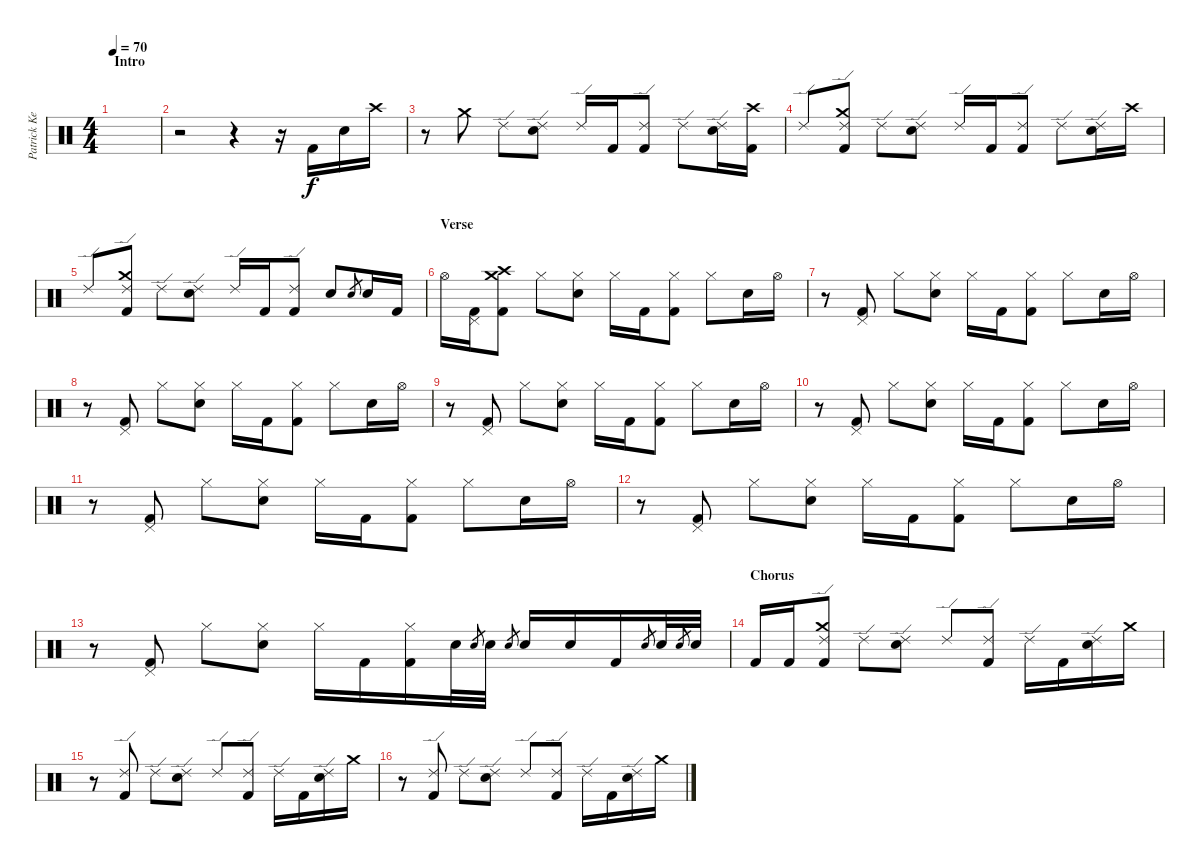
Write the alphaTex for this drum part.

\track ("Patrick Keeler (Drums)" "Patrick Ke") {instrument percussion}
\staff {score}
\articulation defaults
\ts (4 4)
\section ("" "Intro")
\tempo 70
\clef neutral
\ks c
|
r.2 r.4 r.16 "Kick (hit) 2".16{volume 3} "Snare (hit) 2".16 "Crash high (hit)".16 |
r.8 "Crash medium (hit)".8{volume 4} "Ride (edge) 2".8 ("Snare (hit) 2" "Ride (edge) 2").8 "Ride (edge) 2".16{volume 5} "Kick (hit) 2".16 ("Kick (hit) 2" "Ride (edge) 2").8{volume 6} "Ride (edge) 2".8 ("Snare (hit) 2" "Ride (edge) 2").16 ("Kick (hit) 2" "Crash high (hit)").16{volume 9} |
"Ride (edge) 2".8 ("Kick (hit) 2" "Ride (edge) 2" "Crash medium (hit)").8{volume 11} "Ride (edge) 2".8 ("Snare (hit) 2" "Ride (edge) 2").8{volume 14} "Ride (edge) 2".16 "Kick (hit) 2".16 ("Kick (hit) 2" "Ride (edge) 2").8 "Ride (edge) 2".8 ("Snare (hit) 2" "Ride (edge) 2").16 "Crash high (hit)".16 |
"Ride (edge) 2".8 ("Kick (hit) 2" "Ride (edge) 2" "Crash medium (hit)").8 "Ride (edge) 2".8 ("Snare (hit) 2" "Ride (edge) 2").8 "Ride (edge) 2".16 "Kick (hit) 2".16 ("Kick (hit) 2" "Ride (edge) 2").8 "Snare (hit) 2".8 "Snare (hit) 2".8{gr} "Snare (hit) 2".16 "Kick (hit) 2".16 |
\section ("" "Verse")
"Hi-Hat (open)".16 ("Kick (hit) 2" "Pedal Hi-Hat (hit)").16 ("Kick (hit) 2" "Crash high (hit)" "Crash medium (hit)").8 "Hi-Hat (closed)".8 ("Snare (hit) 2" "Hi-Hat (closed)").8 "Hi-Hat (closed)".16 "Kick (hit) 2".16 ("Kick (hit) 2" "Hi-Hat (closed)").8 "Hi-Hat (closed)".8 "Snare (hit) 2".16 "Hi-Hat (open)".16 |
r.8 ("Kick (hit) 2" "Pedal Hi-Hat (hit)").8 "Hi-Hat (closed)".8 ("Snare (hit) 2" "Hi-Hat (closed)").8 "Hi-Hat (closed)".16 "Kick (hit) 2".16 ("Kick (hit) 2" "Hi-Hat (closed)").8 "Hi-Hat (closed)".8 "Snare (hit) 2".16 "Hi-Hat (open)".16 |
r.8 ("Kick (hit) 2" "Pedal Hi-Hat (hit)").8 "Hi-Hat (closed)".8 ("Snare (hit) 2" "Hi-Hat (closed)").8 "Hi-Hat (closed)".16 "Kick (hit) 2".16 ("Kick (hit) 2" "Hi-Hat (closed)").8 "Hi-Hat (closed)".8 "Snare (hit) 2".16 "Hi-Hat (open)".16 |
r.8 ("Kick (hit) 2" "Pedal Hi-Hat (hit)").8 "Hi-Hat (closed)".8 ("Snare (hit) 2" "Hi-Hat (closed)").8 "Hi-Hat (closed)".16 "Kick (hit) 2".16 ("Kick (hit) 2" "Hi-Hat (closed)").8 "Hi-Hat (closed)".8 "Snare (hit) 2".16 "Hi-Hat (open)".16 |
r.8 ("Kick (hit) 2" "Pedal Hi-Hat (hit)").8 "Hi-Hat (closed)".8 ("Snare (hit) 2" "Hi-Hat (closed)").8 "Hi-Hat (closed)".16 "Kick (hit) 2".16 ("Kick (hit) 2" "Hi-Hat (closed)").8 "Hi-Hat (closed)".8 "Snare (hit) 2".16 "Hi-Hat (open)".16 |
r.8 ("Kick (hit) 2" "Pedal Hi-Hat (hit)").8 "Hi-Hat (closed)".8 ("Snare (hit) 2" "Hi-Hat (closed)").8 "Hi-Hat (closed)".16 "Kick (hit) 2".16 ("Kick (hit) 2" "Hi-Hat (closed)").8 "Hi-Hat (closed)".8 "Snare (hit) 2".16 "Hi-Hat (open)".16 |
r.8 ("Kick (hit) 2" "Pedal Hi-Hat (hit)").8 "Hi-Hat (closed)".8 ("Snare (hit) 2" "Hi-Hat (closed)").8 "Hi-Hat (closed)".16 "Kick (hit) 2".16 ("Kick (hit) 2" "Hi-Hat (closed)").8 "Hi-Hat (closed)".8 "Snare (hit) 2".16 "Hi-Hat (open)".16 |
r.8 ("Kick (hit) 2" "Pedal Hi-Hat (hit)").8 "Hi-Hat (closed)".8 ("Snare (hit) 2" "Hi-Hat (closed)").8 "Hi-Hat (closed)".16 "Kick (hit) 2".16 ("Kick (hit) 2" "Hi-Hat (closed)").16 "Snare (hit) 2".32 "Snare (hit) 2".8{gr} "Snare (hit) 2".32 "Snare (hit) 2".8{gr} "Snare (hit) 2".16 "Snare (hit) 2".16 "Kick (hit) 2".16 "Snare (hit) 2".8{gr} "Snare (hit) 2".32 "Snare (hit) 2".8{gr} "Snare (hit) 2".32 |
\section ("" "Chorus")
"Kick (hit) 2".16 "Kick (hit) 2".16 ("Kick (hit) 2" "Ride (edge) 2" "Crash medium (hit)").8 "Ride (edge) 2".8 ("Snare (hit) 2" "Ride (edge) 2").8 "Ride (edge) 2".8 ("Kick (hit) 2" "Ride (edge) 2").8 "Ride (edge) 2".16 "Kick (hit) 2".16 ("Snare (hit) 2" "Ride (edge) 2").16 "Crash medium (hit)".16 |
r.8 ("Kick (hit) 2" "Ride (edge) 2").8 "Ride (edge) 2".8 ("Snare (hit) 2" "Ride (edge) 2").8 "Ride (edge) 2".8 ("Kick (hit) 2" "Ride (edge) 2").8 "Ride (edge) 2".16 "Kick (hit) 2".16 ("Snare (hit) 2" "Ride (edge) 2").16 "Crash medium (hit)".16 |
r.8 ("Kick (hit) 2" "Ride (edge) 2").8 "Ride (edge) 2".8 ("Snare (hit) 2" "Ride (edge) 2").8 "Ride (edge) 2".8 ("Kick (hit) 2" "Ride (edge) 2").8 "Ride (edge) 2".16 "Kick (hit) 2".16 ("Snare (hit) 2" "Ride (edge) 2").16 "Crash medium (hit)".16
